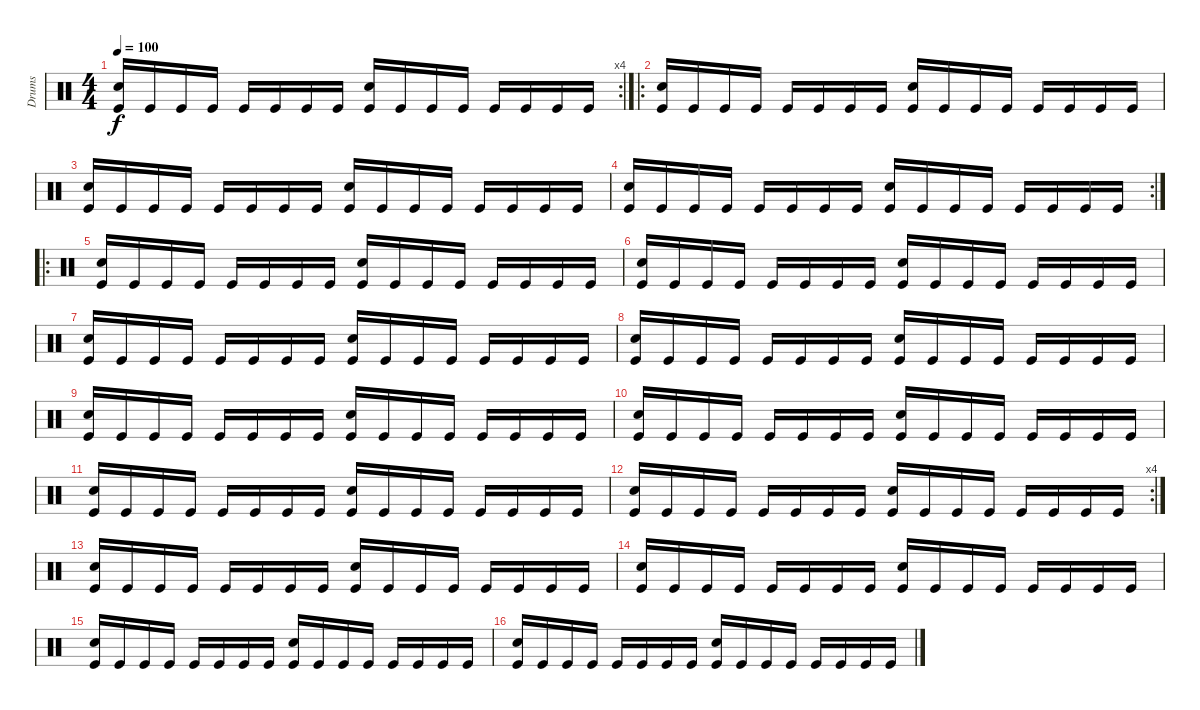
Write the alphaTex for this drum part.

\track ("Drums" "Drums") {instrument percussion}
\staff {score}
\articulation defaults
\rc 4
\ts (4 4)
\tempo 100
\clef neutral
\ks c
("Electric Snare (hit)" "Kick (hit)").16{dy f} "Kick (hit)".16 "Kick (hit)".16 "Kick (hit)".16 "Kick (hit)".16 "Kick (hit)".16 "Kick (hit)".16 "Kick (hit)".16 ("Electric Snare (hit)" "Kick (hit)").16 "Kick (hit)".16 "Kick (hit)".16 "Kick (hit)".16 "Kick (hit)".16 "Kick (hit)".16 "Kick (hit)".16 "Kick (hit)".16 |
\ro
("Electric Snare (hit)" "Kick (hit)").16 "Kick (hit)".16 "Kick (hit)".16 "Kick (hit)".16 "Kick (hit)".16 "Kick (hit)".16 "Kick (hit)".16 "Kick (hit)".16 ("Electric Snare (hit)" "Kick (hit)").16 "Kick (hit)".16 "Kick (hit)".16 "Kick (hit)".16 "Kick (hit)".16 "Kick (hit)".16 "Kick (hit)".16 "Kick (hit)".16 |
("Electric Snare (hit)" "Kick (hit)").16 "Kick (hit)".16 "Kick (hit)".16 "Kick (hit)".16 "Kick (hit)".16 "Kick (hit)".16 "Kick (hit)".16 "Kick (hit)".16 ("Electric Snare (hit)" "Kick (hit)").16 "Kick (hit)".16 "Kick (hit)".16 "Kick (hit)".16 "Kick (hit)".16 "Kick (hit)".16 "Kick (hit)".16 "Kick (hit)".16 |
\rc 2
("Electric Snare (hit)" "Kick (hit)").16 "Kick (hit)".16 "Kick (hit)".16 "Kick (hit)".16 "Kick (hit)".16 "Kick (hit)".16 "Kick (hit)".16 "Kick (hit)".16 ("Electric Snare (hit)" "Kick (hit)").16 "Kick (hit)".16 "Kick (hit)".16 "Kick (hit)".16 "Kick (hit)".16 "Kick (hit)".16 "Kick (hit)".16 "Kick (hit)".16 |
\ro
("Electric Snare (hit)" "Kick (hit)").16 "Kick (hit)".16 "Kick (hit)".16 "Kick (hit)".16 "Kick (hit)".16 "Kick (hit)".16 "Kick (hit)".16 "Kick (hit)".16 ("Electric Snare (hit)" "Kick (hit)").16 "Kick (hit)".16 "Kick (hit)".16 "Kick (hit)".16 "Kick (hit)".16 "Kick (hit)".16 "Kick (hit)".16 "Kick (hit)".16 |
("Electric Snare (hit)" "Kick (hit)").16 "Kick (hit)".16 "Kick (hit)".16 "Kick (hit)".16 "Kick (hit)".16 "Kick (hit)".16 "Kick (hit)".16 "Kick (hit)".16 ("Electric Snare (hit)" "Kick (hit)").16 "Kick (hit)".16 "Kick (hit)".16 "Kick (hit)".16 "Kick (hit)".16 "Kick (hit)".16 "Kick (hit)".16 "Kick (hit)".16 |
("Electric Snare (hit)" "Kick (hit)").16 "Kick (hit)".16 "Kick (hit)".16 "Kick (hit)".16 "Kick (hit)".16 "Kick (hit)".16 "Kick (hit)".16 "Kick (hit)".16 ("Electric Snare (hit)" "Kick (hit)").16 "Kick (hit)".16 "Kick (hit)".16 "Kick (hit)".16 "Kick (hit)".16 "Kick (hit)".16 "Kick (hit)".16 "Kick (hit)".16 |
("Electric Snare (hit)" "Kick (hit)").16 "Kick (hit)".16 "Kick (hit)".16 "Kick (hit)".16 "Kick (hit)".16 "Kick (hit)".16 "Kick (hit)".16 "Kick (hit)".16 ("Electric Snare (hit)" "Kick (hit)").16 "Kick (hit)".16 "Kick (hit)".16 "Kick (hit)".16 "Kick (hit)".16 "Kick (hit)".16 "Kick (hit)".16 "Kick (hit)".16 |
("Electric Snare (hit)" "Kick (hit)").16 "Kick (hit)".16 "Kick (hit)".16 "Kick (hit)".16 "Kick (hit)".16 "Kick (hit)".16 "Kick (hit)".16 "Kick (hit)".16 ("Electric Snare (hit)" "Kick (hit)").16 "Kick (hit)".16 "Kick (hit)".16 "Kick (hit)".16 "Kick (hit)".16 "Kick (hit)".16 "Kick (hit)".16 "Kick (hit)".16 |
("Electric Snare (hit)" "Kick (hit)").16 "Kick (hit)".16 "Kick (hit)".16 "Kick (hit)".16 "Kick (hit)".16 "Kick (hit)".16 "Kick (hit)".16 "Kick (hit)".16 ("Electric Snare (hit)" "Kick (hit)").16 "Kick (hit)".16 "Kick (hit)".16 "Kick (hit)".16 "Kick (hit)".16 "Kick (hit)".16 "Kick (hit)".16 "Kick (hit)".16 |
("Electric Snare (hit)" "Kick (hit)").16 "Kick (hit)".16 "Kick (hit)".16 "Kick (hit)".16 "Kick (hit)".16 "Kick (hit)".16 "Kick (hit)".16 "Kick (hit)".16 ("Electric Snare (hit)" "Kick (hit)").16 "Kick (hit)".16 "Kick (hit)".16 "Kick (hit)".16 "Kick (hit)".16 "Kick (hit)".16 "Kick (hit)".16 "Kick (hit)".16 |
\rc 4
("Electric Snare (hit)" "Kick (hit)").16 "Kick (hit)".16 "Kick (hit)".16 "Kick (hit)".16 "Kick (hit)".16 "Kick (hit)".16 "Kick (hit)".16 "Kick (hit)".16 ("Electric Snare (hit)" "Kick (hit)").16 "Kick (hit)".16 "Kick (hit)".16 "Kick (hit)".16 "Kick (hit)".16 "Kick (hit)".16 "Kick (hit)".16 "Kick (hit)".16 |
("Electric Snare (hit)" "Kick (hit)").16{volume 12} "Kick (hit)".16 "Kick (hit)".16 "Kick (hit)".16 "Kick (hit)".16 "Kick (hit)".16 "Kick (hit)".16 "Kick (hit)".16 ("Electric Snare (hit)" "Kick (hit)").16 "Kick (hit)".16 "Kick (hit)".16 "Kick (hit)".16 "Kick (hit)".16 "Kick (hit)".16 "Kick (hit)".16 "Kick (hit)".16 |
("Electric Snare (hit)" "Kick (hit)").16 "Kick (hit)".16 "Kick (hit)".16 "Kick (hit)".16 "Kick (hit)".16 "Kick (hit)".16 "Kick (hit)".16 "Kick (hit)".16 ("Electric Snare (hit)" "Kick (hit)").16 "Kick (hit)".16 "Kick (hit)".16 "Kick (hit)".16 "Kick (hit)".16 "Kick (hit)".16 "Kick (hit)".16 "Kick (hit)".16 |
("Electric Snare (hit)" "Kick (hit)").16 "Kick (hit)".16 "Kick (hit)".16 "Kick (hit)".16 "Kick (hit)".16 "Kick (hit)".16 "Kick (hit)".16 "Kick (hit)".16 ("Electric Snare (hit)" "Kick (hit)").16 "Kick (hit)".16 "Kick (hit)".16 "Kick (hit)".16 "Kick (hit)".16 "Kick (hit)".16 "Kick (hit)".16 "Kick (hit)".16 |
("Electric Snare (hit)" "Kick (hit)").16 "Kick (hit)".16 "Kick (hit)".16 "Kick (hit)".16 "Kick (hit)".16 "Kick (hit)".16 "Kick (hit)".16 "Kick (hit)".16 ("Electric Snare (hit)" "Kick (hit)").16 "Kick (hit)".16 "Kick (hit)".16 "Kick (hit)".16 "Kick (hit)".16 "Kick (hit)".16 "Kick (hit)".16 "Kick (hit)".16
